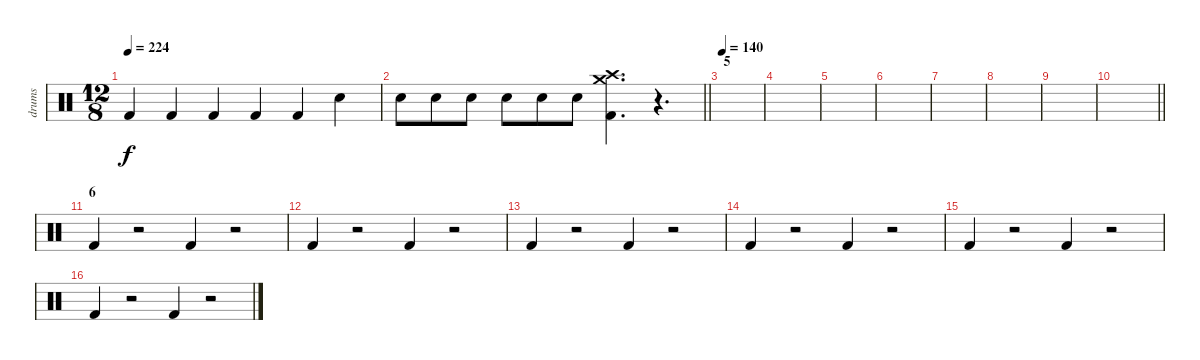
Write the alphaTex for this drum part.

\track ("drums" "drums") {instrument percussion}
\staff {score}
\articulation defaults
\ts (12 8)
\tempo 224
\clef neutral
\ks c "Kick (hit) 2".4{dy f} "Kick (hit) 2".4 "Kick (hit) 2".4 "Kick (hit) 2".4 "Kick (hit) 2".4 "Electric Snare (hit)".4
|
\barLineRight lightlight "Electric Snare (hit)".8 "Electric Snare (hit)".8 "Electric Snare (hit)".8 "Electric Snare (hit)".8 "Electric Snare (hit)".8 "Electric Snare (hit)".8
("Crash medium (hit)" "Crash high (hit)" "Kick (hit) 2").4{d} r.4{d} |
\section ("" "5")
\tempo 140
|
|
|
|
|
|
|
\barLineRight lightlight
|
\section ("" "6")
"Kick (hit) 2".4 r.2 "Kick (hit) 2".4 r.2 |
"Kick (hit) 2".4 r.2 "Kick (hit) 2".4 r.2 |
"Kick (hit) 2".4 r.2 "Kick (hit) 2".4 r.2 |
"Kick (hit) 2".4 r.2 "Kick (hit) 2".4 r.2 |
"Kick (hit) 2".4 r.2 "Kick (hit) 2".4 r.2 |
"Kick (hit) 2".4 r.2 "Kick (hit) 2".4 r.2
